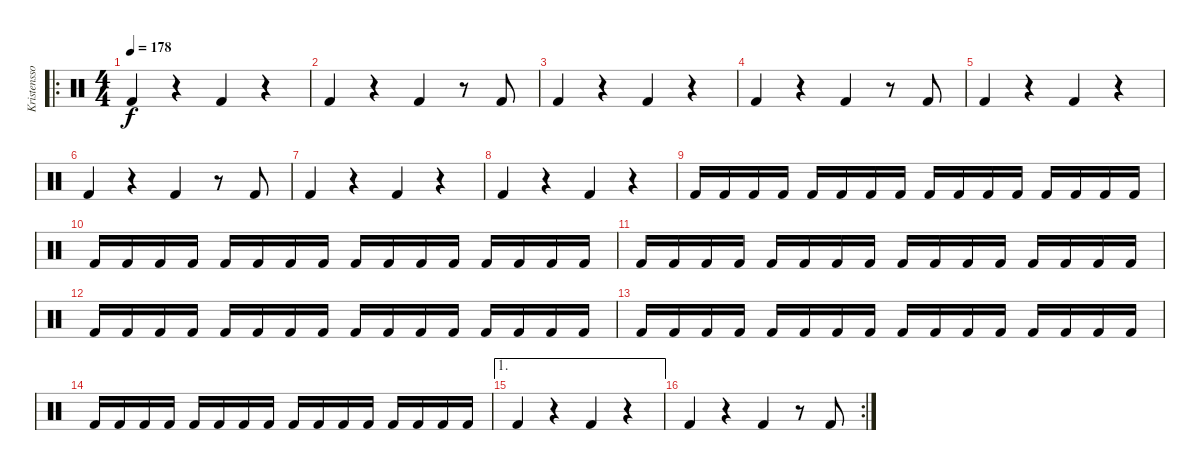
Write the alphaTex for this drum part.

\track ("Kristensson" "Kristensso") {instrument percussion}
\staff {score}
\articulation defaults
\ro
\ts (4 4)
\tempo 178
\clef neutral
\ks c "Kick (hit) 2".4{dy f}
r.4 "Kick (hit) 2".4 r.4 |
"Kick (hit) 2".4 r.4 "Kick (hit) 2".4 r.8 "Kick (hit) 2".8 |
"Kick (hit) 2".4 r.4 "Kick (hit) 2".4 r.4 |
"Kick (hit) 2".4 r.4 "Kick (hit) 2".4 r.8 "Kick (hit) 2".8 |
"Kick (hit) 2".4 r.4 "Kick (hit) 2".4 r.4 |
"Kick (hit) 2".4 r.4 "Kick (hit) 2".4 r.8 "Kick (hit) 2".8 |
"Kick (hit) 2".4 r.4 "Kick (hit) 2".4 r.4 |
"Kick (hit) 2".4 r.4 "Kick (hit) 2".4 r.4 |
"Kick (hit) 2".16 "Kick (hit) 2".16 "Kick (hit) 2".16 "Kick (hit) 2".16 "Kick (hit) 2".16 "Kick (hit) 2".16 "Kick (hit) 2".16 "Kick (hit) 2".16 "Kick (hit) 2".16 "Kick (hit) 2".16 "Kick (hit) 2".16 "Kick (hit) 2".16 "Kick (hit) 2".16 "Kick (hit) 2".16 "Kick (hit) 2".16 "Kick (hit) 2".16 |
"Kick (hit) 2".16 "Kick (hit) 2".16 "Kick (hit) 2".16 "Kick (hit) 2".16 "Kick (hit) 2".16 "Kick (hit) 2".16 "Kick (hit) 2".16 "Kick (hit) 2".16 "Kick (hit) 2".16 "Kick (hit) 2".16 "Kick (hit) 2".16 "Kick (hit) 2".16 "Kick (hit) 2".16 "Kick (hit) 2".16 "Kick (hit) 2".16 "Kick (hit) 2".16 |
"Kick (hit) 2".16 "Kick (hit) 2".16 "Kick (hit) 2".16 "Kick (hit) 2".16 "Kick (hit) 2".16 "Kick (hit) 2".16 "Kick (hit) 2".16 "Kick (hit) 2".16 "Kick (hit) 2".16 "Kick (hit) 2".16 "Kick (hit) 2".16 "Kick (hit) 2".16 "Kick (hit) 2".16 "Kick (hit) 2".16 "Kick (hit) 2".16 "Kick (hit) 2".16 |
"Kick (hit) 2".16 "Kick (hit) 2".16 "Kick (hit) 2".16 "Kick (hit) 2".16 "Kick (hit) 2".16 "Kick (hit) 2".16 "Kick (hit) 2".16 "Kick (hit) 2".16 "Kick (hit) 2".16 "Kick (hit) 2".16 "Kick (hit) 2".16 "Kick (hit) 2".16 "Kick (hit) 2".16 "Kick (hit) 2".16 "Kick (hit) 2".16 "Kick (hit) 2".16 |
"Kick (hit) 2".16 "Kick (hit) 2".16 "Kick (hit) 2".16 "Kick (hit) 2".16 "Kick (hit) 2".16 "Kick (hit) 2".16 "Kick (hit) 2".16 "Kick (hit) 2".16 "Kick (hit) 2".16 "Kick (hit) 2".16 "Kick (hit) 2".16 "Kick (hit) 2".16 "Kick (hit) 2".16 "Kick (hit) 2".16 "Kick (hit) 2".16 "Kick (hit) 2".16 |
"Kick (hit) 2".16 "Kick (hit) 2".16 "Kick (hit) 2".16 "Kick (hit) 2".16 "Kick (hit) 2".16 "Kick (hit) 2".16 "Kick (hit) 2".16 "Kick (hit) 2".16 "Kick (hit) 2".16 "Kick (hit) 2".16 "Kick (hit) 2".16 "Kick (hit) 2".16 "Kick (hit) 2".16 "Kick (hit) 2".16 "Kick (hit) 2".16 "Kick (hit) 2".16 |
\ae 1 "Kick (hit) 2".4
r.4 "Kick (hit) 2".4 r.4 |
\rc 2 "Kick (hit) 2".4
r.4 "Kick (hit) 2".4 r.8 "Kick (hit) 2".8
